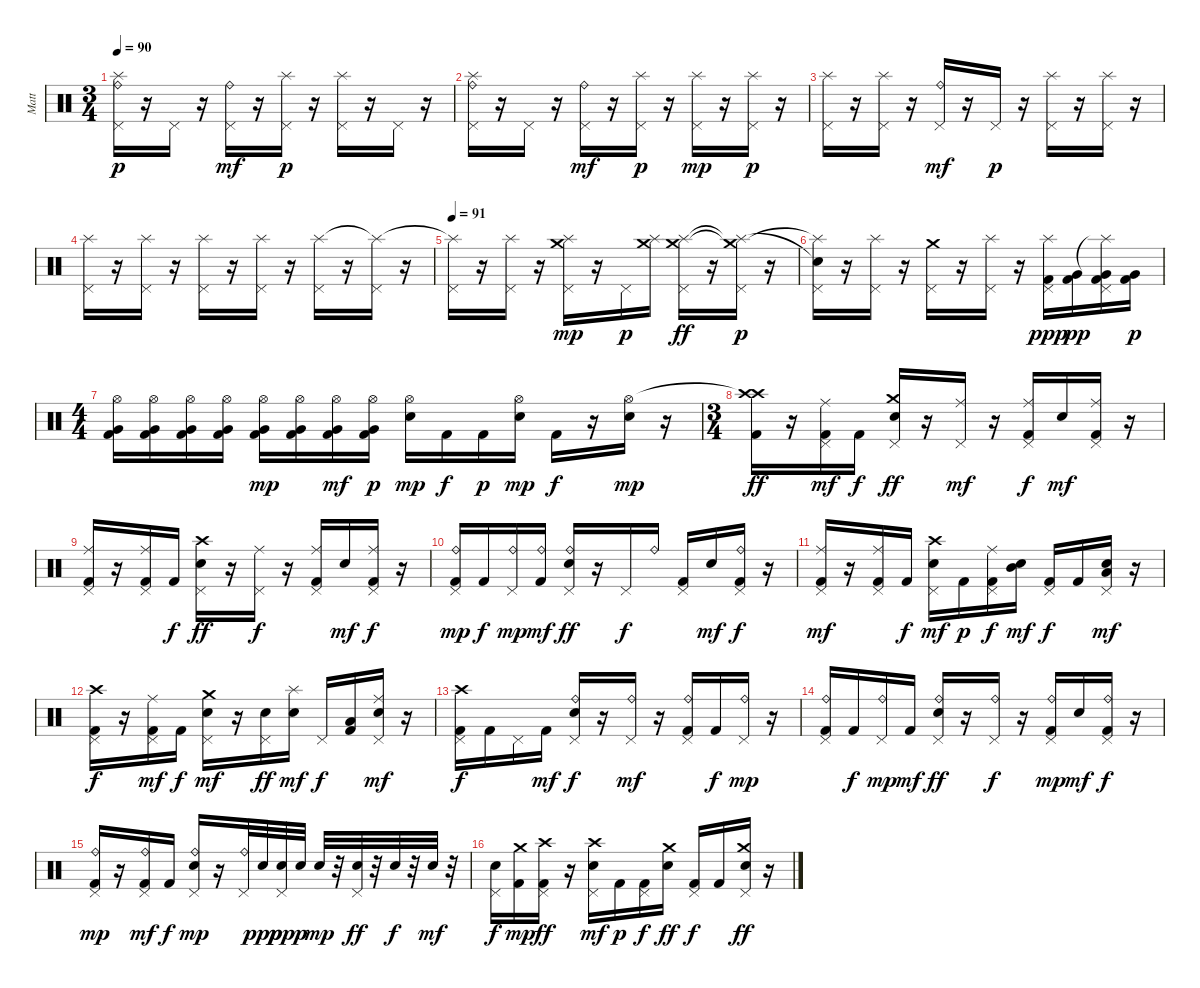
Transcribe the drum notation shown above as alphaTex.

\track ("Matt" "Matt") {instrument percussion}
\staff {score}
\articulation defaults
\ts (3 4)
\tempo 90
\clef neutral
\ks c
("Splash (hit)" "Pedal Hi-Hat (hit)" "Ride (bell)").16{dy p} r.16 "Pedal Hi-Hat (hit)".16 r.16 ("Pedal Hi-Hat (hit)" "Ride (bell)").16{dy mf} r.16 ("Splash (hit)" "Pedal Hi-Hat (hit)").16{dy p} r.16 ("Splash (hit)" "Pedal Hi-Hat (hit)").16 r.16 "Pedal Hi-Hat (hit)".16 r.16 |
("Splash (hit)" "Pedal Hi-Hat (hit)" "Ride (bell)").16 r.16 "Pedal Hi-Hat (hit)".16 r.16 ("Pedal Hi-Hat (hit)" "Ride (bell)").16{dy mf} r.16 ("Splash (hit)" "Pedal Hi-Hat (hit)").16{dy p} r.16 ("Splash (hit)" "Pedal Hi-Hat (hit)").16{dy mp} r.16 ("Splash (hit)" "Pedal Hi-Hat (hit)").16{dy p} r.16 |
("Splash (hit)" "Pedal Hi-Hat (hit)").16 r.16 ("Splash (hit)" "Pedal Hi-Hat (hit)").16 r.16 ("Pedal Hi-Hat (hit)" "Ride (bell)").16{dy mf} r.16 "Pedal Hi-Hat (hit)".16{dy p} r.16 ("Splash (hit)" "Pedal Hi-Hat (hit)").16 r.16 ("Splash (hit)" "Pedal Hi-Hat (hit)").16 r.16 |
("Splash (hit)" "Pedal Hi-Hat (hit)").16 r.16 ("Splash (hit)" "Pedal Hi-Hat (hit)").16 r.16 ("Splash (hit)" "Pedal Hi-Hat (hit)").16 r.16 ("Splash (hit)" "Pedal Hi-Hat (hit)").16 r.16 ("Splash (hit)" "Pedal Hi-Hat (hit)").16 r.16 ("Splash (hit)"{t} "Pedal Hi-Hat (hit)").16 r.16 |
\tempo 91
("Splash (hit)"{t} "Pedal Hi-Hat (hit)").16 r.16 ("Splash (hit)" "Pedal Hi-Hat (hit)").16 r.16 ("Crash medium (hit)" "Pedal Hi-Hat (hit)" "Splash (hit)").16{dy mp} r.16 "Pedal Hi-Hat (hit)".16{dy p} ("Crash medium (hit)" "Splash (hit)").16 ("Crash medium (hit)" "Pedal Hi-Hat (hit)" "Splash (hit)").16{dy ff} r.16 ("Crash medium (hit)"{t} "Pedal Hi-Hat (hit)" "Splash (hit)"{t}).16{dy p} r.16 |
("Splash (hit)"{t} "Pedal Hi-Hat (hit)" "Snare (hit)"{t}).16 r.16 ("Splash (hit)" "Pedal Hi-Hat (hit)").16 r.16 ("Crash medium (hit)" "Pedal Hi-Hat (hit)").16 r.16 ("Splash (hit)" "Pedal Hi-Hat (hit)").16 r.16 ("Splash (hit)" "Pedal Hi-Hat (hit)" "Kick (hit) 2").16{dy ppp} ("Very Low Tom (hit)" "Kick (hit) 2").16{dy pp} ("Splash (hit)"{t} "Pedal Hi-Hat (hit)" "Very Low Tom (hit)" "Kick (hit) 2").16 ("Very Low Tom (hit)" "Kick (hit) 2").16{dy p} |
\ts (4 4)
("Hi-Hat (open)" "Very Low Tom (hit)" "Kick (hit) 2").16 ("Hi-Hat (open)" "Very Low Tom (hit)" "Kick (hit) 2").16 ("Hi-Hat (open)" "Very Low Tom (hit)" "Kick (hit) 2").16 ("Hi-Hat (open)" "Very Low Tom (hit)" "Kick (hit) 2").16 ("Hi-Hat (open)" "Very Low Tom (hit)" "Kick (hit) 2").16{dy mp} ("Hi-Hat (open)" "Very Low Tom (hit)" "Kick (hit) 2").16 ("Hi-Hat (open)" "Very Low Tom (hit)" "Kick (hit) 2").16{dy mf} ("Hi-Hat (open)" "Very Low Tom (hit)" "Kick (hit) 2").16{dy p} ("Hi-Hat (open)" "Electric Snare (hit)").16{dy mp} "Kick (hit) 2".16{dy f} "Kick (hit) 2".16{dy p} ("Hi-Hat (open)" "Electric Snare (hit)").16{dy mp} "Kick (hit) 2".16{dy f} r.16 ("Hi-Hat (open)" "Electric Snare (hit)").16{dy mp} r.16 |
\ts (3 4)
("Crash high (hit)"{t} "Crash high (hit)" "Kick (hit) 2").16{dy ff} r.16 ("Pedal Hi-Hat (hit)" "Ride (middle)" "Kick (hit) 2").16{dy mf} "Kick (hit) 2".16{dy f} ("Crash medium (hit)" "Pedal Hi-Hat (hit)" "Electric Snare (hit)").16{dy ff} r.16 ("Pedal Hi-Hat (hit)" "Ride (middle)").16{dy mf} r.16 ("Pedal Hi-Hat (hit)" "Ride (middle)" "Kick (hit) 2").16{dy f} "Electric Snare (hit)".16{dy mf} ("Pedal Hi-Hat (hit)" "Ride (middle)" "Kick (hit) 2").16 r.16 |
("Pedal Hi-Hat (hit)" "Ride (middle)" "Kick (hit) 2").16 r.16 ("Pedal Hi-Hat (hit)" "Ride (middle)" "Kick (hit) 2").16 "Kick (hit) 2".16{dy f} ("Crash high (hit)" "Pedal Hi-Hat (hit)" "Electric Snare (hit)").16{dy ff} r.16 ("Pedal Hi-Hat (hit)" "Ride (middle)").16{dy f} r.16 ("Pedal Hi-Hat (hit)" "Ride (middle)" "Kick (hit) 2").16 "Electric Snare (hit)".16{dy mf} ("Pedal Hi-Hat (hit)" "Ride (middle)" "Kick (hit) 2").16{dy f} r.16 |
("Ride (bell)" "Pedal Hi-Hat (hit)" "Kick (hit) 2").16{dy mp} "Kick (hit) 2".16{dy f} ("Ride (bell)" "Pedal Hi-Hat (hit)").16{dy mp} ("Ride (bell)" "Kick (hit) 2").16{dy mf} ("Ride (bell)" "Pedal Hi-Hat (hit)" "Electric Snare (hit)").16{dy ff} r.16 "Pedal Hi-Hat (hit)".16{dy f} "Ride (bell)".16 ("Pedal Hi-Hat (hit)" "Kick (hit) 2").16 "Electric Snare (hit)".16{dy mf} ("Ride (bell)" "Pedal Hi-Hat (hit)" "Kick (hit) 2").16{dy f} r.16 |
("Pedal Hi-Hat (hit)" "Ride (middle)" "Kick (hit) 2").16{dy mf} r.16 ("Pedal Hi-Hat (hit)" "Ride (middle)" "Kick (hit) 2").16 "Kick (hit) 2".16{dy f} ("Crash high (hit)" "Pedal Hi-Hat (hit)" "Electric Snare (hit)").16{dy mf} "Kick (hit) 2".16{dy p} ("Pedal Hi-Hat (hit)" "Ride (middle)" "Kick (hit) 2").16{dy f} ("Electric Snare (hit)" "Mid Tom (hit)").16{dy mf} ("Pedal Hi-Hat (hit)" "Kick (hit) 2").16{dy f} "Kick (hit) 2".16 ("Pedal Hi-Hat (hit)" "Electric Snare (hit)" "Low Tom (hit)").16{dy mf} r.16 |
("Crash high (hit)" "Pedal Hi-Hat (hit)" "Kick (hit) 2").16{dy f} r.16 ("Pedal Hi-Hat (hit)" "Ride (middle)" "Kick (hit) 2").16{dy mf} "Kick (hit) 2".16{dy f} ("Crash medium (hit)" "Pedal Hi-Hat (hit)" "Electric Snare (hit)").16{dy mf} r.16 ("Pedal Hi-Hat (hit)" "Electric Snare (hit)").16{dy ff} ("Splash (hit)" "Electric Snare (hit)").16{dy mf} "Pedal Hi-Hat (hit)".16{dy f} ("Low Floor Tom (hit)" "Kick (hit) 2").16 ("Pedal Hi-Hat (hit)" "Ride (middle)" "Electric Snare (hit)").16{dy mf} r.16 |
("Crash high (hit)" "Pedal Hi-Hat (hit)" "Kick (hit) 2").16{dy f} "Kick (hit) 2".16 "Pedal Hi-Hat (hit)".16 "Kick (hit) 2".16{dy mf} ("Ride (bell)" "Pedal Hi-Hat (hit)" "Electric Snare (hit)").16{dy f} r.16 ("Ride (bell)" "Pedal Hi-Hat (hit)").16{dy mf} r.16 ("Ride (bell)" "Pedal Hi-Hat (hit)" "Kick (hit) 2").16 "Kick (hit) 2".16{dy f} ("Ride (bell)" "Pedal Hi-Hat (hit)").16{dy mp} r.16 |
("Ride (bell)" "Pedal Hi-Hat (hit)" "Kick (hit) 2").16 "Kick (hit) 2".16{dy f} ("Ride (bell)" "Pedal Hi-Hat (hit)").16{dy mp} "Kick (hit) 2".16{dy mf} ("Ride (bell)" "Pedal Hi-Hat (hit)" "Electric Snare (hit)").16{dy ff} r.16 ("Ride (bell)" "Pedal Hi-Hat (hit)").16{dy f} r.16 ("Ride (bell)" "Pedal Hi-Hat (hit)" "Kick (hit) 2").16{dy mp} "Electric Snare (hit)".16{dy mf} ("Ride (bell)" "Pedal Hi-Hat (hit)" "Kick (hit) 2").16{dy f} r.16 |
("Ride (bell)" "Pedal Hi-Hat (hit)" "Kick (hit) 2").16{dy mp} r.16 ("Ride (bell)" "Pedal Hi-Hat (hit)" "Kick (hit) 2").16{dy mf} "Kick (hit) 2".16{dy f} ("Ride (bell)" "Pedal Hi-Hat (hit)" "Electric Snare (hit)").16{dy mp} r.16 ("Ride (bell)" "Pedal Hi-Hat (hit)").32 "Electric Snare (hit)".32{dy ppp} ("Pedal Hi-Hat (hit)" "Electric Snare (hit)").32{dy pp} "Electric Snare (hit)".32{dy p} "Electric Snare (hit)".32{dy mp} r.32 ("Pedal Hi-Hat (hit)" "Electric Snare (hit)").32{dy ff} r.32 "Electric Snare (hit)".32{dy f} r.32 "Electric Snare (hit)".32{dy mf} r.32 |
("Pedal Hi-Hat (hit)" "Electric Snare (hit)").16{dy f} ("Crash medium (hit)" "Kick (hit) 2").16{dy mp} ("Crash high (hit)" "Pedal Hi-Hat (hit)" "Kick (hit) 2").16{dy ff} r.16 ("Crash high (hit)" "Pedal Hi-Hat (hit)" "Electric Snare (hit)").16{dy mf} "Kick (hit) 2".16{dy p} ("Pedal Hi-Hat (hit)" "Kick (hit) 2").16{dy f} ("Crash medium (hit)" "Electric Snare (hit)").16{dy ff} ("Pedal Hi-Hat (hit)" "Kick (hit) 2").16{dy f} "Kick (hit) 2".16 ("Crash medium (hit)" "Pedal Hi-Hat (hit)" "Electric Snare (hit)").16{dy ff} r.16
